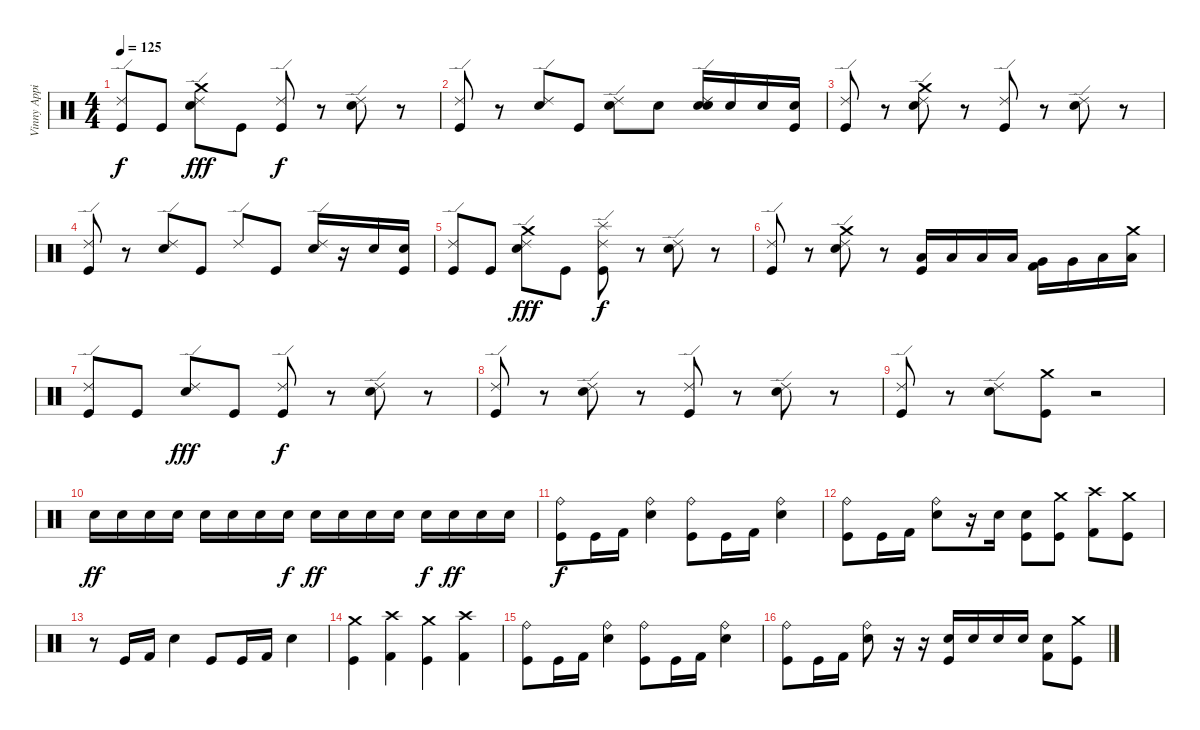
\track ("Vinny Appice - Drums" "Vinny Appi") {instrument percussion}
\staff {score}
\articulation defaults
\ts (4 4)
\tempo 125
\clef neutral
\ks c
("Kick (hit)" "Ride (edge) 2").8{dy f} "Kick (hit)".8 ("Ride (edge) 2" "Snare (hit) 2" "Crash medium (hit)").8{dy fff} "Kick (hit)".8 ("Ride (edge) 2" "Kick (hit)").8{dy f} r.8 ("Ride (edge) 2" "Snare (hit) 2").8 r.8 |
("Ride (edge) 2" "Kick (hit)").8 r.8 ("Ride (edge) 2" "Snare (hit) 2").8 "Kick (hit)".8 ("Ride (edge) 2" "Snare (hit) 2").8 "Snare (hit) 2".8 ("Ride (edge) 2" "Snare (hit) 2" "Snare (hit) 2").16 "Snare (hit) 2".16 "Snare (hit) 2".16 ("Kick (hit)" "Snare (hit) 2").16 |
("Ride (edge) 2" "Kick (hit)").8 r.8 ("Ride (edge) 2" "Snare (hit) 2" "Crash medium (hit)").8 r.8 ("Ride (edge) 2" "Kick (hit)").8 r.8 ("Ride (edge) 2" "Snare (hit) 2").8 r.8 |
("Ride (edge) 2" "Kick (hit)").8 r.8 ("Ride (edge) 2" "Snare (hit) 2").8 "Kick (hit)".8 "Ride (edge) 2".8 "Kick (hit)".8 ("Ride (edge) 2" "Snare (hit) 2").16 r.16 "Snare (hit) 2".16 ("Kick (hit)" "Snare (hit) 2").16 |
("Kick (hit)" "Ride (edge) 2").8 "Kick (hit)".8 ("Ride (edge) 2" "Snare (hit) 2" "Crash medium (hit)").8{dy fff} "Kick (hit)".8 ("Ride (edge) 2" "Kick (hit)" "Splash (hit)").8{dy f} r.8 ("Ride (edge) 2" "Snare (hit) 2").8 r.8 |
("Ride (edge) 2" "Kick (hit)").8 r.8 ("Ride (edge) 2" "Snare (hit) 2" "Crash medium (hit)").8 r.8 ("Kick (hit)" "Low Tom (hit)").16 "Low Tom (hit)".16 "Low Tom (hit)".16 "Low Tom (hit)".16 ("Kick (hit) 2" "Very Low Tom (hit)").16 "Very Low Tom (hit)".16 "Low Floor Tom (hit)".16 ("Low Floor Tom (hit)" "Crash medium (hit)").16 |
("Kick (hit)" "Ride (edge) 2").8 "Kick (hit)".8 ("Ride (edge) 2" "Snare (hit) 2").8{dy fff} "Kick (hit)".8 ("Ride (edge) 2" "Kick (hit)").8{dy f} r.8 ("Ride (edge) 2" "Snare (hit) 2").8 r.8 |
("Ride (edge) 2" "Kick (hit)").8 r.8 ("Ride (edge) 2" "Snare (hit) 2").8 r.8 ("Ride (edge) 2" "Kick (hit)").8 r.8 ("Ride (edge) 2" "Snare (hit) 2").8 r.8 |
("Ride (edge) 2" "Kick (hit)").8 r.8 ("Ride (edge) 2" "Snare (hit) 2").8 ("Kick (hit)" "Crash medium (hit)").8 r.2 |
"Electric Snare (hit)".16{dy ff} "Electric Snare (hit)".16 "Electric Snare (hit)".16 "Electric Snare (hit)".16 "Electric Snare (hit)".16 "Electric Snare (hit)".16 "Electric Snare (hit)".16 "Electric Snare (hit)".16{dy f} "Electric Snare (hit)".16{dy ff} "Electric Snare (hit)".16 "Electric Snare (hit)".16 "Electric Snare (hit)".16 "Snare (hit) 2".16{dy f} "Snare (hit) 2".16{dy ff} "Snare (hit) 2".16 "Snare (hit) 2".16 |
("Kick (hit)" "Ride (bell)").8{dy f} "Kick (hit)".16 "Kick (hit) 2".16 ("Snare (hit) 2" "Ride (bell)").4 ("Kick (hit)" "Ride (bell)").8 "Kick (hit)".16 "Kick (hit) 2".16 ("Snare (hit) 2" "Ride (bell)").4 |
("Kick (hit)" "Ride (bell)").8 "Kick (hit)".16 "Kick (hit) 2".16 ("Snare (hit) 2" "Ride (bell)").8 r.16 "Snare (hit) 2".16 ("Snare (hit) 2" "Kick (hit)").8 ("Kick (hit)" "Crash medium (hit)").8 ("Kick (hit) 2" "Crash high (hit)").8 ("Kick (hit)" "Crash medium (hit)").8 |
r.8 "Kick (hit)".16 "Kick (hit) 2".16 "Snare (hit) 2".4 "Kick (hit)".8 "Kick (hit)".16 "Kick (hit) 2".16 "Snare (hit) 2".4 |
("Kick (hit)" "Crash medium (hit)").4 ("Kick (hit) 2" "Crash high (hit)").4 ("Kick (hit)" "Crash medium (hit)").4 ("Kick (hit) 2" "Crash high (hit)").4 |
("Kick (hit)" "Ride (bell)").8 "Kick (hit)".16 "Kick (hit) 2".16 ("Snare (hit) 2" "Ride (bell)").4 ("Kick (hit)" "Ride (bell)").8 "Kick (hit)".16 "Kick (hit) 2".16 ("Snare (hit) 2" "Ride (bell)").4 |
("Kick (hit)" "Ride (bell)").8 "Kick (hit)".16 "Kick (hit) 2".16 ("Snare (hit) 2" "Ride (bell)").8 r.16 r.16 ("Snare (hit) 2" "Kick (hit)").16 "Snare (hit) 2".16 "Snare (hit) 2".16 "Snare (hit) 2".16 ("Snare (hit) 2" "Kick (hit) 2").8 ("Kick (hit)" "Crash medium (hit)").8
